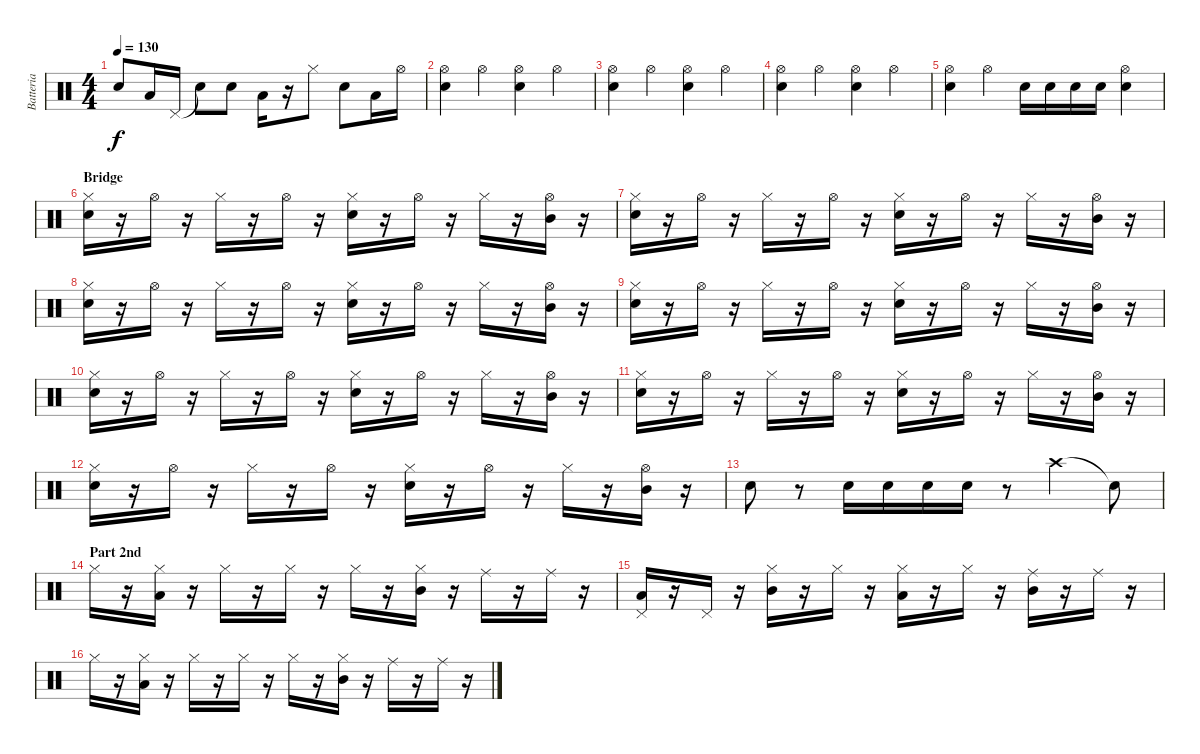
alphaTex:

\track ("Batteria" "Batteria") {instrument percussion}
\staff {score}
\articulation defaults
\ts (4 4)
\tempo 130
\clef neutral
\ks c "Electric Snare (hit)".8{dy f} "Low Tom (hit)".16 "Pedal Hi-Hat (hit)".16 "Snare (hit)"{t}.8 "Electric Snare (hit)".8 "Low Tom (hit)".16
r.16 "Hi-Hat (closed)".8 "Electric Snare (hit)".8 "Low Tom (hit)".16 "Hi-Hat (open)".16 |
("Hi-Hat (open)" "Electric Snare (hit)").4 "Hi-Hat (open)".4 ("Hi-Hat (open)" "Electric Snare (hit)").4 "Hi-Hat (open)".4 |
("Hi-Hat (open)" "Electric Snare (hit)").4 "Hi-Hat (open)".4 ("Hi-Hat (open)" "Electric Snare (hit)").4 "Hi-Hat (open)".4 |
("Hi-Hat (open)" "Electric Snare (hit)").4 "Hi-Hat (open)".4 ("Hi-Hat (open)" "Electric Snare (hit)").4 "Hi-Hat (open)".4 |
("Hi-Hat (open)" "Electric Snare (hit)").4 "Hi-Hat (open)".4 "Electric Snare (hit)".16 "Electric Snare (hit)".16 "Electric Snare (hit)".16 "Electric Snare (hit)".16 ("Hi-Hat (open)" "Snare (hit) 2").4 |
\section ("" "Bridge")
("Hi-Hat (closed)" "Electric Snare (hit)").16 r.16 "Hi-Hat (open)".16 r.16 "Hi-Hat (closed)".16 r.16 "Hi-Hat (open)".16 r.16 ("Hi-Hat (closed)" "Electric Snare (hit)").16 r.16 "Hi-Hat (open)".16 r.16 "Hi-Hat (closed)".16 r.16 ("Hi-Hat (open)" "Mid Tom (hit)").16 r.16 |
("Hi-Hat (closed)" "Electric Snare (hit)").16 r.16 "Hi-Hat (open)".16 r.16 "Hi-Hat (closed)".16 r.16 "Hi-Hat (open)".16 r.16 ("Hi-Hat (closed)" "Electric Snare (hit)").16 r.16 "Hi-Hat (open)".16 r.16 "Hi-Hat (closed)".16 r.16 ("Hi-Hat (open)" "Mid Tom (hit)").16 r.16 |
("Hi-Hat (closed)" "Electric Snare (hit)").16 r.16 "Hi-Hat (open)".16 r.16 "Hi-Hat (closed)".16 r.16 "Hi-Hat (open)".16 r.16 ("Hi-Hat (closed)" "Electric Snare (hit)").16 r.16 "Hi-Hat (open)".16 r.16 "Hi-Hat (closed)".16 r.16 ("Hi-Hat (open)" "Mid Tom (hit)").16 r.16 |
("Hi-Hat (closed)" "Electric Snare (hit)").16 r.16 "Hi-Hat (open)".16 r.16 "Hi-Hat (closed)".16 r.16 "Hi-Hat (open)".16 r.16 ("Hi-Hat (closed)" "Electric Snare (hit)").16 r.16 "Hi-Hat (open)".16 r.16 "Hi-Hat (closed)".16 r.16 ("Hi-Hat (open)" "Mid Tom (hit)").16 r.16 |
("Hi-Hat (closed)" "Electric Snare (hit)").16 r.16 "Hi-Hat (open)".16 r.16 "Hi-Hat (closed)".16 r.16 "Hi-Hat (open)".16 r.16 ("Hi-Hat (closed)" "Electric Snare (hit)").16 r.16 "Hi-Hat (open)".16 r.16 "Hi-Hat (closed)".16 r.16 ("Hi-Hat (open)" "Mid Tom (hit)").16 r.16 |
("Hi-Hat (closed)" "Electric Snare (hit)").16 r.16 "Hi-Hat (open)".16 r.16 "Hi-Hat (closed)".16 r.16 "Hi-Hat (open)".16 r.16 ("Hi-Hat (closed)" "Electric Snare (hit)").16 r.16 "Hi-Hat (open)".16 r.16 "Hi-Hat (closed)".16 r.16 ("Hi-Hat (open)" "Mid Tom (hit)").16 r.16 |
("Hi-Hat (closed)" "Electric Snare (hit)").16 r.16 "Hi-Hat (open)".16 r.16 "Hi-Hat (closed)".16 r.16 "Hi-Hat (open)".16 r.16 ("Hi-Hat (closed)" "Electric Snare (hit)").16 r.16 "Hi-Hat (open)".16 r.16 "Hi-Hat (closed)".16 r.16 ("Hi-Hat (open)" "Mid Tom (hit)").16 r.16 |
"Electric Snare (hit)".8 r.8 "Electric Snare (hit)".16 "Electric Snare (hit)".16 "Electric Snare (hit)".16 "Electric Snare (hit)".16 r.8 "Crash high (hit)".4 "Snare (hit)"{t}.8 |
\section ("" "Part 2nd")
"Hi-Hat (closed)".16 r.16 ("Hi-Hat (closed)" "Low Tom (hit)").16 r.16 "Hi-Hat (closed)".16 r.16 "Hi-Hat (closed)".16 r.16 "Hi-Hat (closed)".16 r.16 ("Hi-Hat (closed)" "Mid Tom (hit)").16 r.16 "Ride (middle)".16 r.16 "Ride (middle)".16 r.16 |
("Pedal Hi-Hat (hit)" "Low Tom (hit)").16 r.16 "Pedal Hi-Hat (hit)".16 r.16 ("Hi-Hat (closed)" "Mid Tom (hit)").16 r.16 "Hi-Hat (closed)".16 r.16 ("Hi-Hat (closed)" "Low Tom (hit)").16 r.16 "Hi-Hat (closed)".16 r.16 ("Ride (middle)" "Mid Tom (hit)").16 r.16 "Ride (middle)".16 r.16 |
"Hi-Hat (closed)".16 r.16 ("Hi-Hat (closed)" "Low Tom (hit)").16 r.16 "Hi-Hat (closed)".16 r.16 "Hi-Hat (closed)".16 r.16 "Hi-Hat (closed)".16 r.16 ("Hi-Hat (closed)" "Mid Tom (hit)").16 r.16 "Ride (middle)".16 r.16 "Ride (middle)".16 r.16
